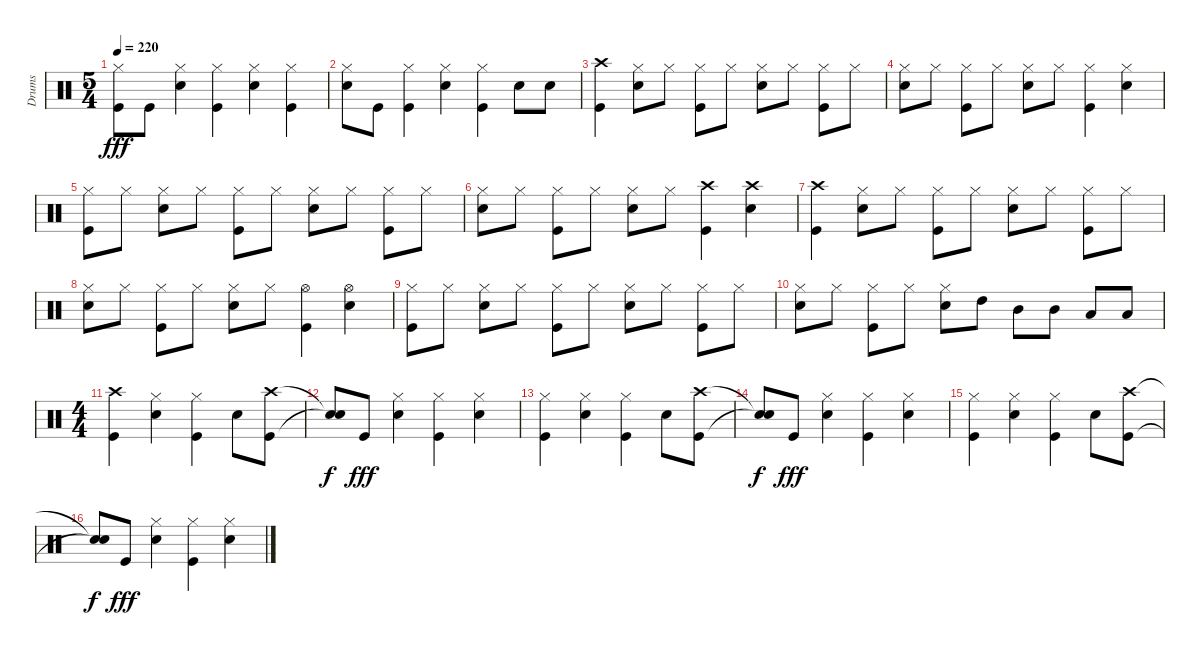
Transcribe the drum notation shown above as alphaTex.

\track ("Drums" "Drums") {instrument percussion}
\staff {score}
\articulation defaults
\ts (5 4)
\tempo 220
\clef neutral
\ks c
("Hi-Hat (closed)" "Kick (hit)").8{dy fff} "Kick (hit)".8 ("Hi-Hat (closed)" "Snare (hit) 2").4 ("Hi-Hat (closed)" "Kick (hit)").4 ("Hi-Hat (closed)" "Snare (hit) 2").4 ("Hi-Hat (closed)" "Kick (hit)").4 |
("Hi-Hat (closed)" "Snare (hit) 2").8 "Kick (hit)".8 ("Hi-Hat (closed)" "Kick (hit)").4 ("Hi-Hat (closed)" "Snare (hit) 2").4 ("Hi-Hat (closed)" "Kick (hit)").4 "Snare (hit) 2".8 "Snare (hit) 2".8 |
("Crash high (hit)" "Kick (hit)").4 ("Hi-Hat (closed)" "Snare (hit) 2").8 "Hi-Hat (closed)".8 ("Hi-Hat (closed)" "Kick (hit)").8 "Hi-Hat (closed)".8 ("Hi-Hat (closed)" "Snare (hit) 2").8 "Hi-Hat (closed)".8 ("Hi-Hat (closed)" "Kick (hit)").8 "Hi-Hat (closed)".8 |
("Hi-Hat (closed)" "Snare (hit) 2").8 "Hi-Hat (closed)".8 ("Hi-Hat (closed)" "Kick (hit)").8 "Hi-Hat (closed)".8 ("Hi-Hat (closed)" "Snare (hit) 2").8 "Hi-Hat (closed)".8 ("Hi-Hat (closed)" "Kick (hit)").4 ("Hi-Hat (closed)" "Snare (hit) 2").4 |
("Hi-Hat (closed)" "Kick (hit)").8 "Hi-Hat (closed)".8 ("Hi-Hat (closed)" "Snare (hit) 2").8 "Hi-Hat (closed)".8 ("Hi-Hat (closed)" "Kick (hit)").8 "Hi-Hat (closed)".8 ("Hi-Hat (closed)" "Snare (hit) 2").8 "Hi-Hat (closed)".8 ("Hi-Hat (closed)" "Kick (hit)").8 "Hi-Hat (closed)".8 |
("Hi-Hat (closed)" "Snare (hit) 2").8 "Hi-Hat (closed)".8 ("Hi-Hat (closed)" "Kick (hit)").8 "Hi-Hat (closed)".8 ("Hi-Hat (closed)" "Snare (hit) 2").8 "Hi-Hat (closed)".8 ("Crash high (hit)" "Kick (hit)").4 ("Crash high (hit)" "Snare (hit) 2").4 |
("Crash high (hit)" "Kick (hit)").4 ("Hi-Hat (closed)" "Snare (hit) 2").8 "Hi-Hat (closed)".8 ("Hi-Hat (closed)" "Kick (hit)").8 "Hi-Hat (closed)".8 ("Hi-Hat (closed)" "Snare (hit) 2").8 "Hi-Hat (closed)".8 ("Hi-Hat (closed)" "Kick (hit)").8 "Hi-Hat (closed)".8 |
("Hi-Hat (closed)" "Snare (hit) 2").8 "Hi-Hat (closed)".8 ("Hi-Hat (closed)" "Kick (hit)").8 "Hi-Hat (closed)".8 ("Hi-Hat (closed)" "Snare (hit) 2").8 "Hi-Hat (closed)".8 ("Hi-Hat (open)" "Kick (hit)").4 ("Hi-Hat (open)" "Snare (hit) 2").4 |
("Hi-Hat (closed)" "Kick (hit)").8 "Hi-Hat (closed)".8 ("Hi-Hat (closed)" "Snare (hit) 2").8 "Hi-Hat (closed)".8 ("Hi-Hat (closed)" "Kick (hit)").8 "Hi-Hat (closed)".8 ("Hi-Hat (closed)" "Snare (hit) 2").8 "Hi-Hat (closed)".8 ("Hi-Hat (closed)" "Kick (hit)").8 "Hi-Hat (closed)".8 |
("Hi-Hat (closed)" "Snare (hit) 2").8 "Hi-Hat (closed)".8 ("Hi-Hat (closed)" "Kick (hit)").8 "Hi-Hat (closed)".8 ("Hi-Hat (closed)" "Snare (hit) 2").8 "High Tom (hit)".8 "Mid Tom (hit)".8 "Mid Tom (hit)".8 "Low Tom (hit)".8 "Low Tom (hit)".8 |
\ts (4 4)
("Crash high (hit)" "Kick (hit)").4 ("Hi-Hat (closed)" "Snare (hit) 2").4 ("Hi-Hat (closed)" "Kick (hit)").4 "Snare (hit) 2".8 ("Crash high (hit)" "Kick (hit)").8 |
("Snare (hit)"{t} "Snare (hit)"{t}).8{dy f} "Kick (hit)".8{dy fff} ("Hi-Hat (closed)" "Snare (hit) 2").4 ("Hi-Hat (closed)" "Kick (hit)").4 ("Hi-Hat (closed)" "Snare (hit) 2").4 |
("Hi-Hat (closed)" "Kick (hit)").4 ("Hi-Hat (closed)" "Snare (hit) 2").4 ("Hi-Hat (closed)" "Kick (hit)").4 "Snare (hit) 2".8 ("Crash high (hit)" "Kick (hit)").8 |
("Snare (hit)"{t} "Snare (hit)"{t}).8{dy f} "Kick (hit)".8{dy fff} ("Hi-Hat (closed)" "Snare (hit) 2").4 ("Hi-Hat (closed)" "Kick (hit)").4 ("Hi-Hat (closed)" "Snare (hit) 2").4 |
("Hi-Hat (closed)" "Kick (hit)").4 ("Hi-Hat (closed)" "Snare (hit) 2").4 ("Hi-Hat (closed)" "Kick (hit)").4 "Snare (hit) 2".8 ("Crash high (hit)" "Kick (hit)").8 |
("Snare (hit)"{t} "Snare (hit)"{t}).8{dy f} "Kick (hit)".8{dy fff} ("Hi-Hat (closed)" "Snare (hit) 2").4 ("Hi-Hat (closed)" "Kick (hit)").4 ("Hi-Hat (closed)" "Snare (hit) 2").4
